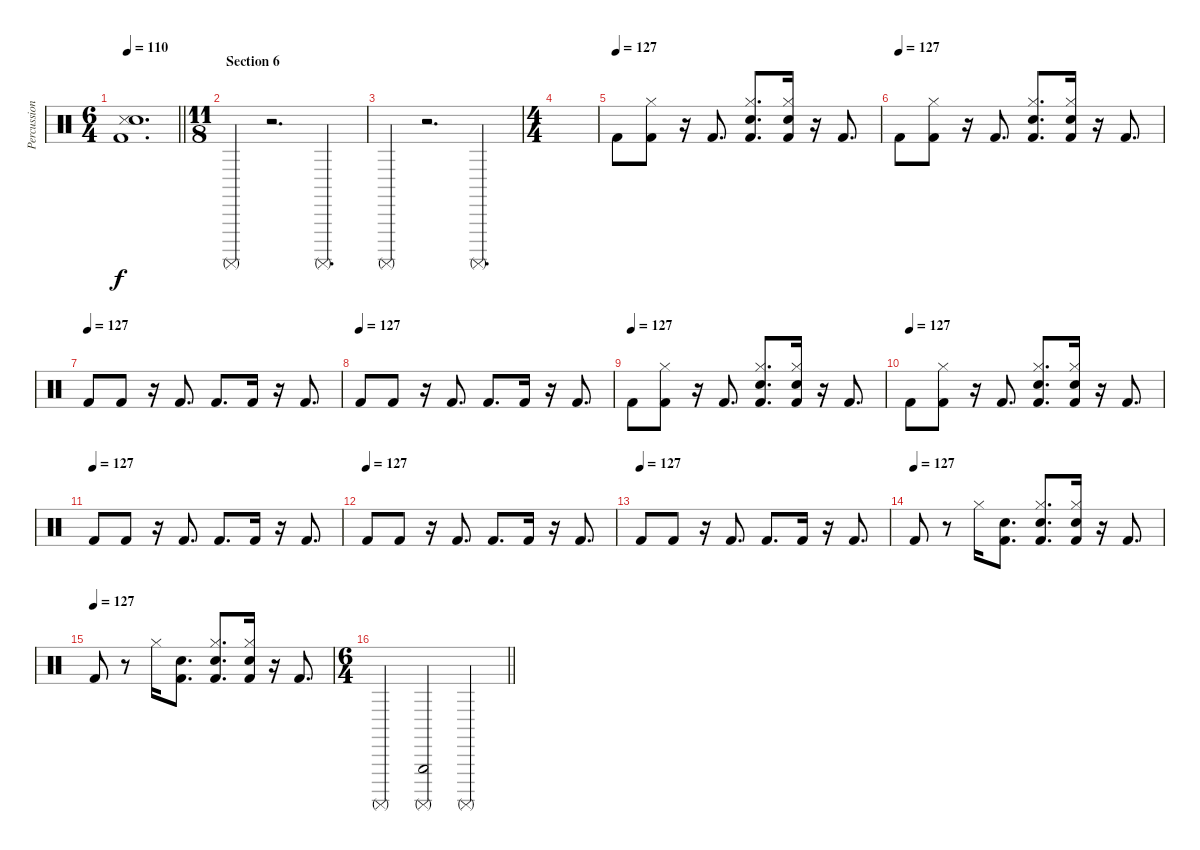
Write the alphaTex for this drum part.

\track ("Percussion" "Percussion") {instrument percussion}
\staff {score}
\articulation defaults
\ts (6 4)
\tempo 110
\clef neutral
\barLineRight lightlight
\ks c
("Snare (side stick) 3" "Electric Snare (hit)" "Kick (hit) 2").1{d dy f} |
\ts (11 8)
\section ("" "Section 6")
"Surdo (mute)".4 r.2{d} "Surdo (mute)".4{d} |
"Surdo (mute)".4 r.2{d} "Surdo (mute)".4{d} |
\ts (4 4)
|
\tempo (127)
"Kick (hit) 2".8 ("Hi-Hat (closed)" "Kick (hit) 2").8 r.16 "Kick (hit) 2".8{d} ("Hi-Hat (closed)" "Hand Clap (hit)" "Kick (hit) 2").8{d} ("Hi-Hat (closed)" "Snare (hit) 2" "Kick (hit) 2").16 r.16 "Kick (hit) 2".8{d} |
\tempo (127)
"Kick (hit) 2".8 ("Hi-Hat (closed)" "Kick (hit) 2").8 r.16 "Kick (hit) 2".8{d} ("Hi-Hat (closed)" "Hand Clap (hit)" "Kick (hit) 2").8{d} ("Hi-Hat (closed)" "Snare (hit) 2" "Kick (hit) 2").16 r.16 "Kick (hit) 2".8{d} |
\tempo (127)
"Kick (hit) 2".8{volume 16} "Kick (hit) 2".8 r.16 "Kick (hit) 2".8{d} "Kick (hit) 2".8{d} "Kick (hit) 2".16 r.16 "Kick (hit) 2".8{d} |
\tempo (127)
"Kick (hit) 2".8{volume 16} "Kick (hit) 2".8 r.16 "Kick (hit) 2".8{d} "Kick (hit) 2".8{d} "Kick (hit) 2".16 r.16 "Kick (hit) 2".8{d} |
\tempo (127)
"Kick (hit) 2".8 ("Hi-Hat (closed)" "Kick (hit) 2").8 r.16 "Kick (hit) 2".8{d} ("Hi-Hat (closed)" "Hand Clap (hit)" "Kick (hit) 2").8{d} ("Hi-Hat (closed)" "Snare (hit) 2" "Kick (hit) 2").16 r.16 "Kick (hit) 2".8{d} |
\tempo (127)
"Kick (hit) 2".8 ("Hi-Hat (closed)" "Kick (hit) 2").8 r.16 "Kick (hit) 2".8{d} ("Hi-Hat (closed)" "Hand Clap (hit)" "Kick (hit) 2").8{d} ("Hi-Hat (closed)" "Snare (hit) 2" "Kick (hit) 2").16 r.16 "Kick (hit) 2".8{d} |
\tempo (127)
"Kick (hit) 2".8{volume 16} "Kick (hit) 2".8 r.16 "Kick (hit) 2".8{d} "Kick (hit) 2".8{d} "Kick (hit) 2".16 r.16 "Kick (hit) 2".8{d} |
\tempo (127)
"Kick (hit) 2".8{volume 16} "Kick (hit) 2".8 r.16 "Kick (hit) 2".8{d} "Kick (hit) 2".8{d} "Kick (hit) 2".16 r.16 "Kick (hit) 2".8{d} |
\tempo (127)
"Kick (hit) 2".8{volume 16} "Kick (hit) 2".8 r.16 "Kick (hit) 2".8{d} "Kick (hit) 2".8{d} "Kick (hit) 2".16 r.16 "Kick (hit) 2".8{d} |
\tempo (127)
"Kick (hit) 2".8 r.8 "Hi-Hat (closed)".16 ("Hand Clap (hit)" "Kick (hit) 2").8{d} ("Hi-Hat (closed)" "Hand Clap (hit)" "Kick (hit) 2").8{d} ("Hi-Hat (closed)" "Snare (hit) 2" "Kick (hit) 2").16 r.16 "Kick (hit) 2".8{d} |
\tempo (127)
"Kick (hit) 2".8 r.8 "Hi-Hat (closed)".16 ("Hand Clap (hit)" "Kick (hit) 2").8{d} ("Hi-Hat (closed)" "Hand Clap (hit)" "Kick (hit) 2").8{d} ("Hi-Hat (closed)" "Snare (hit) 2" "Kick (hit) 2").16 r.16 "Kick (hit) 2".8{d} |
\ts (6 4)
\barLineRight lightlight "Surdo (mute)".2
("Triangle (hit)" "Surdo (mute)").2 "Surdo (mute)".2
